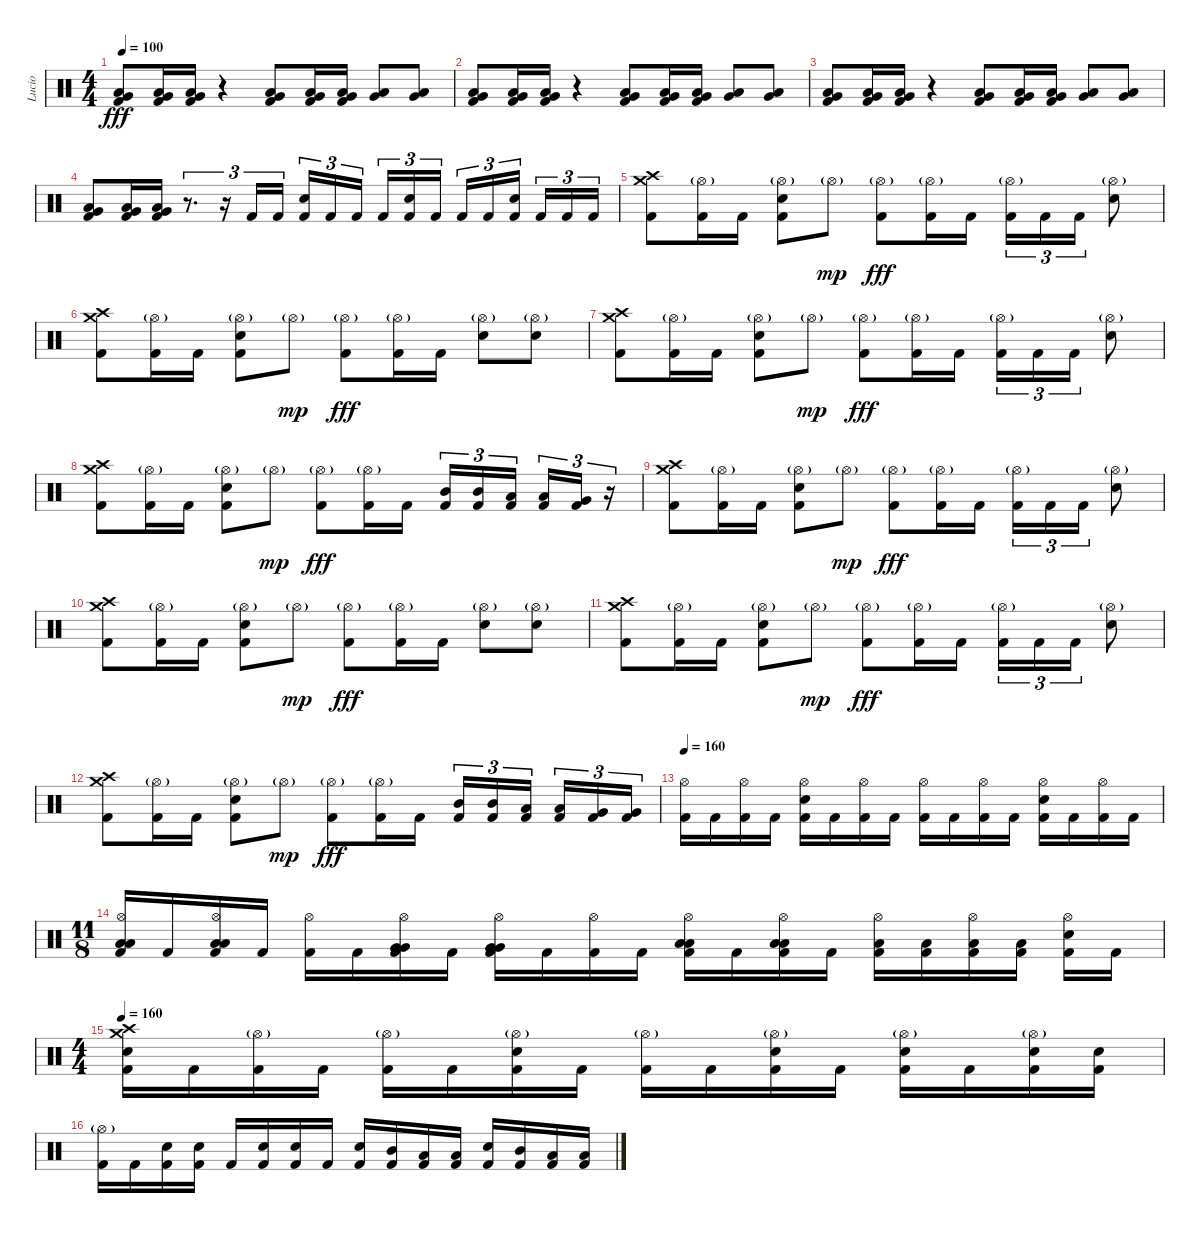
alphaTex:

\track ("Lucio" "Lucio") {instrument percussion}
\staff {score}
\articulation defaults
\ts (4 4)
\tempo 100
\clef neutral
\ks c
("Low Floor Tom (hit)" "Very Low Tom (hit)" "Kick (hit) 2").8{dy fff} ("Low Floor Tom (hit)" "Very Low Tom (hit)" "Kick (hit) 2").16 ("Low Floor Tom (hit)" "Very Low Tom (hit)" "Kick (hit) 2").16 r.4 ("Low Floor Tom (hit)" "Very Low Tom (hit)" "Kick (hit) 2").8 ("Low Floor Tom (hit)" "Very Low Tom (hit)" "Kick (hit) 2").16 ("Low Floor Tom (hit)" "Very Low Tom (hit)" "Kick (hit) 2").16 ("Low Floor Tom (hit)" "Very Low Tom (hit)").8 ("Low Floor Tom (hit)" "Very Low Tom (hit)").8 |
("Low Floor Tom (hit)" "Very Low Tom (hit)" "Kick (hit) 2").8 ("Low Floor Tom (hit)" "Very Low Tom (hit)" "Kick (hit) 2").16 ("Low Floor Tom (hit)" "Very Low Tom (hit)" "Kick (hit) 2").16 r.4 ("Low Floor Tom (hit)" "Very Low Tom (hit)" "Kick (hit) 2").8 ("Low Floor Tom (hit)" "Very Low Tom (hit)" "Kick (hit) 2").16 ("Low Floor Tom (hit)" "Very Low Tom (hit)" "Kick (hit) 2").16 ("Low Floor Tom (hit)" "Very Low Tom (hit)").8 ("Low Floor Tom (hit)" "Very Low Tom (hit)").8 |
("Low Floor Tom (hit)" "Very Low Tom (hit)" "Kick (hit) 2").8 ("Low Floor Tom (hit)" "Very Low Tom (hit)" "Kick (hit) 2").16 ("Low Floor Tom (hit)" "Very Low Tom (hit)" "Kick (hit) 2").16 r.4 ("Low Floor Tom (hit)" "Very Low Tom (hit)" "Kick (hit) 2").8 ("Low Floor Tom (hit)" "Very Low Tom (hit)" "Kick (hit) 2").16 ("Low Floor Tom (hit)" "Very Low Tom (hit)" "Kick (hit) 2").16 ("Low Floor Tom (hit)" "Very Low Tom (hit)").8 ("Low Floor Tom (hit)" "Very Low Tom (hit)").8 |
("Low Floor Tom (hit)" "Very Low Tom (hit)" "Kick (hit) 2").8 ("Low Floor Tom (hit)" "Very Low Tom (hit)" "Kick (hit) 2").16 ("Low Floor Tom (hit)" "Very Low Tom (hit)" "Kick (hit) 2").16 r.8{d tu (3 2)} r.16{tu (3 2)} "Kick (hit) 2".16{tu (3 2)} "Kick (hit) 2".16{tu (3 2)} ("Electric Snare (hit)" "Kick (hit) 2").16{tu (3 2)} "Kick (hit) 2".16{tu (3 2)} "Kick (hit) 2".16{tu (3 2) beam splitsecondary} "Kick (hit) 2".16{tu (3 2)} ("Electric Snare (hit)" "Kick (hit) 2").16{tu (3 2)} "Kick (hit) 2".16{tu (3 2)} "Kick (hit) 2".16{tu (3 2)} "Kick (hit) 2".16{tu (3 2)} ("Electric Snare (hit)" "Kick (hit) 2").16{tu (3 2) beam splitsecondary} "Kick (hit) 2".16{tu (3 2)} "Kick (hit) 2".16{tu (3 2)} "Kick (hit) 2".16{tu (3 2)} |
("Crash medium (hit)" "Crash high (hit)" "Kick (hit) 2").8 ("Hi-Hat (open)"{g} "Kick (hit) 2").16 "Kick (hit) 2".16 ("Hi-Hat (open)"{g} "Electric Snare (hit)" "Kick (hit) 2").8 "Hi-Hat (open)"{g}.8{dy mp} ("Hi-Hat (open)"{g} "Kick (hit) 2").8{dy fff} ("Hi-Hat (open)"{g} "Kick (hit) 2").16 "Kick (hit) 2".16 ("Hi-Hat (open)"{g} "Kick (hit) 2").16{tu (3 2)} "Kick (hit) 2".16{tu (3 2)} "Kick (hit) 2".16{tu (3 2)} ("Hi-Hat (open)"{g} "Electric Snare (hit)").8 |
("Crash medium (hit)" "Crash high (hit)" "Kick (hit) 2").8 ("Hi-Hat (open)"{g} "Kick (hit) 2").16 "Kick (hit) 2".16 ("Hi-Hat (open)"{g} "Electric Snare (hit)" "Kick (hit) 2").8 "Hi-Hat (open)"{g}.8{dy mp} ("Hi-Hat (open)"{g} "Kick (hit) 2").8{dy fff} ("Hi-Hat (open)"{g} "Kick (hit) 2").16 "Kick (hit) 2".16 ("Hi-Hat (open)"{g} "Electric Snare (hit)").8 ("Hi-Hat (open)"{g} "Electric Snare (hit)").8 |
("Crash medium (hit)" "Crash high (hit)" "Kick (hit) 2").8 ("Hi-Hat (open)"{g} "Kick (hit) 2").16 "Kick (hit) 2".16 ("Hi-Hat (open)"{g} "Electric Snare (hit)" "Kick (hit) 2").8 "Hi-Hat (open)"{g}.8{dy mp} ("Hi-Hat (open)"{g} "Kick (hit) 2").8{dy fff} ("Hi-Hat (open)"{g} "Kick (hit) 2").16 "Kick (hit) 2".16 ("Hi-Hat (open)"{g} "Kick (hit) 2").16{tu (3 2)} "Kick (hit) 2".16{tu (3 2)} "Kick (hit) 2".16{tu (3 2)} ("Hi-Hat (open)"{g} "Electric Snare (hit)").8 |
("Crash medium (hit)" "Crash high (hit)" "Kick (hit) 2").8 ("Hi-Hat (open)"{g} "Kick (hit) 2").16 "Kick (hit) 2".16 ("Hi-Hat (open)"{g} "Electric Snare (hit)" "Kick (hit) 2").8 "Hi-Hat (open)"{g}.8{dy mp} ("Hi-Hat (open)"{g} "Kick (hit) 2").8{dy fff} ("Hi-Hat (open)"{g} "Kick (hit) 2").16 "Kick (hit) 2".16 ("Mid Tom (hit)" "Kick (hit) 2").16{tu (3 2)} ("Mid Tom (hit)" "Kick (hit) 2").16{tu (3 2)} ("Low Tom (hit)" "Kick (hit) 2").16{tu (3 2) beam splitsecondary} ("Low Tom (hit)" "Kick (hit) 2").16{tu (3 2)} ("Very Low Tom (hit)" "Kick (hit) 2").16{tu (3 2)} r.16{tu (3 2)} |
("Crash medium (hit)" "Crash high (hit)" "Kick (hit) 2").8 ("Hi-Hat (open)"{g} "Kick (hit) 2").16 "Kick (hit) 2".16 ("Hi-Hat (open)"{g} "Electric Snare (hit)" "Kick (hit) 2").8 "Hi-Hat (open)"{g}.8{dy mp} ("Hi-Hat (open)"{g} "Kick (hit) 2").8{dy fff} ("Hi-Hat (open)"{g} "Kick (hit) 2").16 "Kick (hit) 2".16 ("Hi-Hat (open)"{g} "Kick (hit) 2").16{tu (3 2)} "Kick (hit) 2".16{tu (3 2)} "Kick (hit) 2".16{tu (3 2)} ("Hi-Hat (open)"{g} "Electric Snare (hit)").8 |
("Crash medium (hit)" "Crash high (hit)" "Kick (hit) 2").8 ("Hi-Hat (open)"{g} "Kick (hit) 2").16 "Kick (hit) 2".16 ("Hi-Hat (open)"{g} "Electric Snare (hit)" "Kick (hit) 2").8 "Hi-Hat (open)"{g}.8{dy mp} ("Hi-Hat (open)"{g} "Kick (hit) 2").8{dy fff} ("Hi-Hat (open)"{g} "Kick (hit) 2").16 "Kick (hit) 2".16 ("Hi-Hat (open)"{g} "Electric Snare (hit)").8 ("Hi-Hat (open)"{g} "Electric Snare (hit)").8 |
("Crash medium (hit)" "Crash high (hit)" "Kick (hit) 2").8 ("Hi-Hat (open)"{g} "Kick (hit) 2").16 "Kick (hit) 2".16 ("Hi-Hat (open)"{g} "Electric Snare (hit)" "Kick (hit) 2").8 "Hi-Hat (open)"{g}.8{dy mp} ("Hi-Hat (open)"{g} "Kick (hit) 2").8{dy fff} ("Hi-Hat (open)"{g} "Kick (hit) 2").16 "Kick (hit) 2".16 ("Hi-Hat (open)"{g} "Kick (hit) 2").16{tu (3 2)} "Kick (hit) 2".16{tu (3 2)} "Kick (hit) 2".16{tu (3 2)} ("Hi-Hat (open)"{g} "Electric Snare (hit)").8 |
("Crash medium (hit)" "Crash high (hit)" "Kick (hit) 2").8 ("Hi-Hat (open)"{g} "Kick (hit) 2").16 "Kick (hit) 2".16 ("Hi-Hat (open)"{g} "Electric Snare (hit)" "Kick (hit) 2").8 "Hi-Hat (open)"{g}.8{dy mp} ("Hi-Hat (open)"{g} "Kick (hit) 2").8{dy fff} ("Hi-Hat (open)"{g} "Kick (hit) 2").16 "Kick (hit) 2".16 ("Mid Tom (hit)" "Kick (hit) 2").16{tu (3 2)} ("Mid Tom (hit)" "Kick (hit) 2").16{tu (3 2)} ("Low Tom (hit)" "Kick (hit) 2").16{tu (3 2) beam splitsecondary} ("Low Tom (hit)" "Kick (hit) 2").16{tu (3 2)} ("Very Low Tom (hit)" "Kick (hit) 2").16{tu (3 2)} ("Very Low Tom (hit)" "Kick (hit) 2").16{tu (3 2)} |
\tempo 160
("Hi-Hat (open)" "Kick (hit) 2").16 "Kick (hit) 2".16 ("Hi-Hat (open)" "Kick (hit) 2").16 "Kick (hit) 2".16 ("Hi-Hat (open)" "Electric Snare (hit)" "Kick (hit) 2").16 "Kick (hit) 2".16 ("Hi-Hat (open)" "Kick (hit) 2").16 "Kick (hit) 2".16 ("Hi-Hat (open)" "Kick (hit) 2").16 "Kick (hit) 2".16 ("Hi-Hat (open)" "Kick (hit) 2").16 "Kick (hit) 2".16 ("Hi-Hat (open)" "Electric Snare (hit)" "Kick (hit) 2").16 "Kick (hit) 2".16 ("Hi-Hat (open)" "Kick (hit) 2").16 "Kick (hit) 2".16 |
\ts (11 8)
("Hi-Hat (open)" "Low Tom (hit)" "Low Tom (hit)" "Kick (hit) 2").16 "Kick (hit) 2".16 ("Hi-Hat (open)" "Low Tom (hit)" "Low Tom (hit)" "Kick (hit) 2").16 "Kick (hit) 2".16 ("Hi-Hat (open)" "Kick (hit) 2").16 "Kick (hit) 2".16 ("Hi-Hat (open)" "Very Low Tom (hit)" "Very Low Tom (hit)" "Kick (hit) 2").16 "Kick (hit) 2".16 ("Hi-Hat (open)" "Very Low Tom (hit)" "Very Low Tom (hit)" "Kick (hit) 2").16 "Kick (hit) 2".16 ("Hi-Hat (open)" "Kick (hit) 2").16 "Kick (hit) 2".16 ("Hi-Hat (open)" "Low Floor Tom (hit)" "Low Floor Tom (hit)" "Kick (hit) 2").16 "Kick (hit) 2".16 ("Hi-Hat (open)" "Low Floor Tom (hit)" "Low Floor Tom (hit)" "Kick (hit) 2").16 "Kick (hit) 2".16 ("Hi-Hat (open)" "Low Floor Tom (hit)" "Kick (hit) 2").16 ("Low Floor Tom (hit)" "Kick (hit) 2").16 ("Hi-Hat (open)" "Low Floor Tom (hit)" "Kick (hit) 2").16 ("Low Floor Tom (hit)" "Kick (hit) 2").16 ("Hi-Hat (open)" "Electric Snare (hit)" "Kick (hit) 2").16 "Kick (hit) 2".16 |
\ts (4 4)
\tempo 160
("Crash medium (hit)" "Crash high (hit)" "Electric Snare (hit)" "Kick (hit) 2").16 "Kick (hit) 2".16 ("Hi-Hat (open)"{g} "Kick (hit) 2").16 "Kick (hit) 2".16 ("Hi-Hat (open)"{g} "Kick (hit) 2").16 "Kick (hit) 2".16 ("Hi-Hat (open)"{g} "Electric Snare (hit)" "Kick (hit) 2").16 "Kick (hit) 2".16 ("Hi-Hat (open)"{g} "Kick (hit) 2").16 "Kick (hit) 2".16 ("Hi-Hat (open)"{g} "Electric Snare (hit)" "Kick (hit) 2").16 "Kick (hit) 2".16 ("Hi-Hat (open)"{g} "Electric Snare (hit)" "Kick (hit) 2").16 "Kick (hit) 2".16 ("Hi-Hat (open)"{g} "Electric Snare (hit)" "Kick (hit) 2").16 ("Electric Snare (hit)" "Kick (hit) 2").16 |
("Hi-Hat (open)"{g} "Kick (hit) 2").16 "Kick (hit) 2".16 ("Electric Snare (hit)" "Kick (hit) 2").16 ("Electric Snare (hit)" "Kick (hit) 2").16 "Kick (hit) 2".16 ("Electric Snare (hit)" "Kick (hit) 2").16 ("Electric Snare (hit)" "Kick (hit) 2").16 "Kick (hit) 2".16 ("Electric Snare (hit)" "Kick (hit) 2").16 ("Mid Tom (hit)" "Kick (hit) 2").16 ("Low Tom (hit)" "Kick (hit) 2").16 ("Low Tom (hit)" "Kick (hit) 2").16 ("Electric Snare (hit)" "Kick (hit) 2").16 ("Mid Tom (hit)" "Kick (hit) 2").16 ("Low Tom (hit)" "Kick (hit) 2").16 ("Low Tom (hit)" "Kick (hit) 2").16
